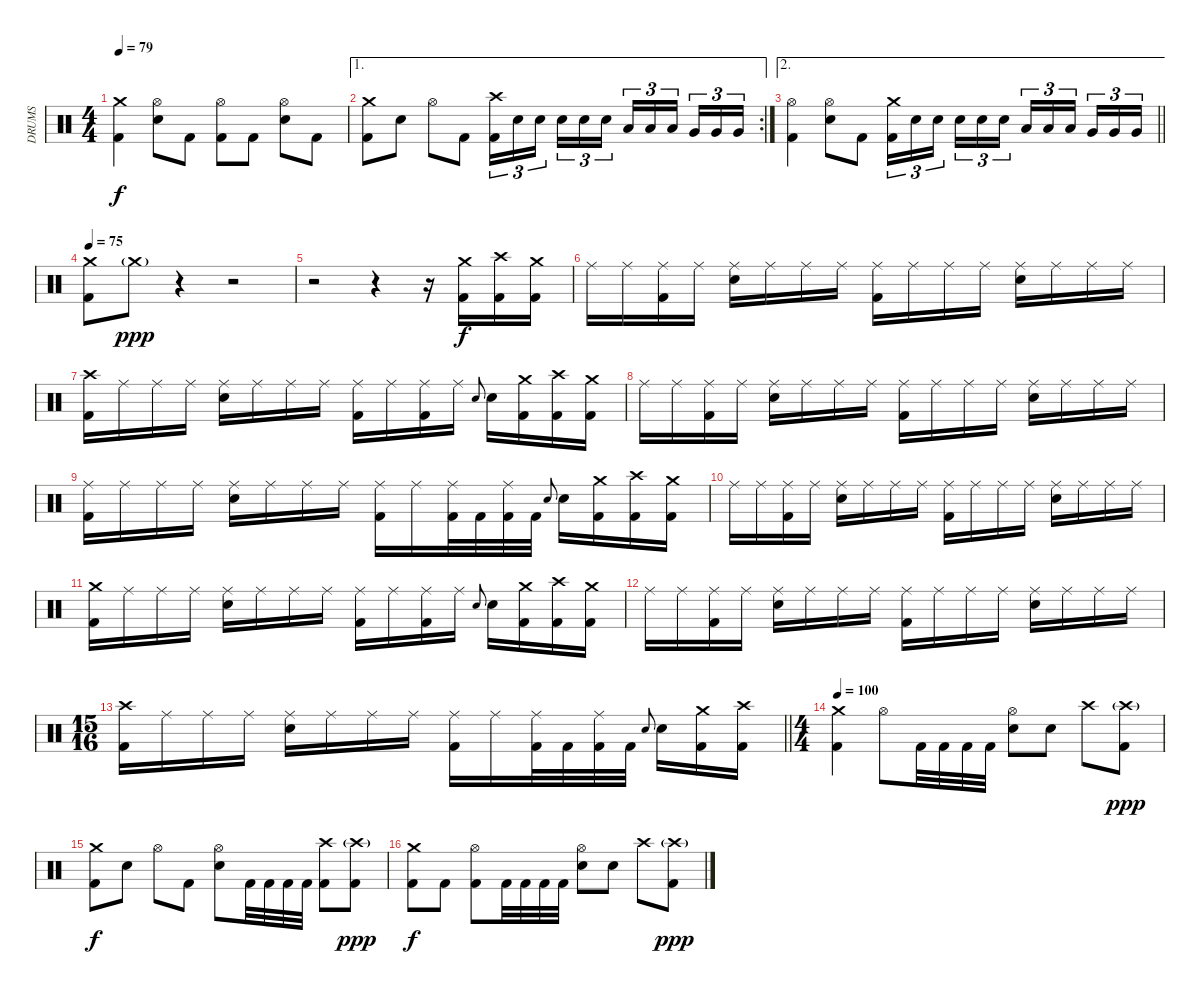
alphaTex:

\track ("DRUMS" "DRUMS") {instrument percussion}
\staff {score}
\articulation defaults
\ts (4 4)
\tempo 79
\clef neutral
\ks c
("Crash medium (hit)" "Kick (hit) 2").4{dy f} ("Hi-Hat (open)" "Snare (hit) 2").8 "Kick (hit) 2".8 ("Hi-Hat (open)" "Kick (hit) 2").8 "Kick (hit) 2".8 ("Hi-Hat (open)" "Snare (hit) 2").8 "Kick (hit) 2".8 |
\ae 1
\rc 2
("Crash medium (hit)" "Kick (hit) 2").8 "Snare (hit) 2".8 "Hi-Hat (open)".8 "Kick (hit) 2".8 ("Crash high (hit)" "Kick (hit) 2").16{tu (3 2)} "Snare (hit) 2".16{tu (3 2)} "Snare (hit) 2".16{tu (3 2) beam splitsecondary} "Snare (hit) 2".16{tu (3 2)} "Snare (hit) 2".16{tu (3 2)} "Snare (hit) 2".16{tu (3 2)} "Low Tom (hit)".16{tu (3 2)} "Low Tom (hit)".16{tu (3 2)} "Low Tom (hit)".16{tu (3 2) beam splitsecondary} "Very Low Tom (hit)".16{tu (3 2)} "Very Low Tom (hit)".16{tu (3 2)} "Very Low Tom (hit)".16{tu (3 2)} |
\ae 2
\barLineRight lightlight
("Hi-Hat (open)" "Kick (hit) 2").4 ("Hi-Hat (open)" "Snare (hit) 2").8 "Kick (hit) 2".8 ("Crash medium (hit)" "Kick (hit) 2").16{tu (3 2)} "Snare (hit) 2".16{tu (3 2)} "Snare (hit) 2".16{tu (3 2) beam splitsecondary} "Snare (hit) 2".16{tu (3 2)} "Snare (hit) 2".16{tu (3 2)} "Snare (hit) 2".16{tu (3 2)} "Low Tom (hit)".16{tu (3 2)} "Low Tom (hit)".16{tu (3 2)} "Low Tom (hit)".16{tu (3 2) beam splitsecondary} "Very Low Tom (hit)".16{tu (3 2)} "Very Low Tom (hit)".16{tu (3 2)} "Very Low Tom (hit)".16{tu (3 2)} |
\tempo 75
("Crash medium (hit)" "Kick (hit) 2").8 "Crash medium (hit)"{g}.8{dy ppp} r.4 r.2 |
r.2 r.4 r.16 ("Crash medium (hit)" "Kick (hit) 2").16{dy f} ("Crash high (hit)" "Kick (hit) 2").16 ("Crash medium (hit)" "Kick (hit) 2").16 |
"Ride (middle)".16 "Ride (middle)".16 ("Ride (middle)" "Kick (hit) 2").16 "Ride (middle)".16 ("Ride (middle)" "Snare (hit) 2").16 "Ride (middle)".16 "Ride (middle)".16 "Ride (middle)".16 ("Ride (middle)" "Kick (hit) 2").16 "Ride (middle)".16 "Ride (middle)".16 "Ride (middle)".16 ("Ride (middle)" "Snare (hit) 2").16 "Ride (middle)".16 "Ride (middle)".16 "Ride (middle)".16 |
("Crash high (hit)" "Kick (hit) 2").16 "Ride (middle)".16 "Ride (middle)".16 "Ride (middle)".16 ("Ride (middle)" "Snare (hit) 2").16 "Ride (middle)".16 "Ride (middle)".16 "Ride (middle)".16 ("Ride (middle)" "Kick (hit) 2").16 "Ride (middle)".16 ("Ride (middle)" "Kick (hit) 2").16 "Ride (middle)".16 "Snare (hit) 2".8{gr onbeat} "Snare (hit) 2".16 ("Crash medium (hit)" "Kick (hit) 2").16 ("Crash high (hit)" "Kick (hit) 2").16 ("Crash medium (hit)" "Kick (hit) 2").16 |
"Ride (middle)".16 "Ride (middle)".16 ("Ride (middle)" "Kick (hit) 2").16 "Ride (middle)".16 ("Ride (middle)" "Snare (hit) 2").16 "Ride (middle)".16 "Ride (middle)".16 "Ride (middle)".16 ("Ride (middle)" "Kick (hit) 2").16 "Ride (middle)".16 "Ride (middle)".16 "Ride (middle)".16 ("Ride (middle)" "Snare (hit) 2").16 "Ride (middle)".16 "Ride (middle)".16 "Ride (middle)".16 |
("Ride (middle)" "Kick (hit) 2").16 "Ride (middle)".16 "Ride (middle)".16 "Ride (middle)".16 ("Ride (middle)" "Snare (hit) 2").16 "Ride (middle)".16 "Ride (middle)".16 "Ride (middle)".16 ("Ride (middle)" "Kick (hit) 2").16 "Ride (middle)".16 ("Ride (middle)" "Kick (hit) 2").32 "Kick (hit) 2".32 ("Ride (middle)" "Kick (hit) 2").32 "Kick (hit) 2".32 "Snare (hit) 2".8{gr onbeat} "Snare (hit) 2".16 ("Crash medium (hit)" "Kick (hit) 2").16 ("Crash high (hit)" "Kick (hit) 2").16 ("Crash medium (hit)" "Kick (hit) 2").16 |
"Ride (middle)".16 "Ride (middle)".16 ("Ride (middle)" "Kick (hit) 2").16 "Ride (middle)".16 ("Ride (middle)" "Snare (hit) 2").16 "Ride (middle)".16 "Ride (middle)".16 "Ride (middle)".16 ("Ride (middle)" "Kick (hit) 2").16 "Ride (middle)".16 "Ride (middle)".16 "Ride (middle)".16 ("Ride (middle)" "Snare (hit) 2").16 "Ride (middle)".16 "Ride (middle)".16 "Ride (middle)".16 |
("Crash medium (hit)" "Kick (hit) 2").16 "Ride (middle)".16 "Ride (middle)".16 "Ride (middle)".16 ("Ride (middle)" "Snare (hit) 2").16 "Ride (middle)".16 "Ride (middle)".16 "Ride (middle)".16 ("Ride (middle)" "Kick (hit) 2").16 "Ride (middle)".16 ("Ride (middle)" "Kick (hit) 2").16 "Ride (middle)".16 "Snare (hit) 2".8{gr onbeat} "Snare (hit) 2".16 ("Crash medium (hit)" "Kick (hit) 2").16 ("Crash high (hit)" "Kick (hit) 2").16 ("Crash medium (hit)" "Kick (hit) 2").16 |
"Ride (middle)".16 "Ride (middle)".16 ("Ride (middle)" "Kick (hit) 2").16 "Ride (middle)".16 ("Ride (middle)" "Snare (hit) 2").16 "Ride (middle)".16 "Ride (middle)".16 "Ride (middle)".16 ("Ride (middle)" "Kick (hit) 2").16 "Ride (middle)".16 "Ride (middle)".16 "Ride (middle)".16 ("Ride (middle)" "Snare (hit) 2").16 "Ride (middle)".16 "Ride (middle)".16 "Ride (middle)".16 |
\ts (15 16)
\barLineRight lightlight
("Crash high (hit)" "Kick (hit) 2").16 "Ride (middle)".16 "Ride (middle)".16 "Ride (middle)".16 ("Ride (middle)" "Snare (hit) 2").16 "Ride (middle)".16 "Ride (middle)".16 "Ride (middle)".16 ("Ride (middle)" "Kick (hit) 2").16 "Ride (middle)".16 ("Ride (middle)" "Kick (hit) 2").32 "Kick (hit) 2".32 ("Ride (middle)" "Kick (hit) 2").32 "Kick (hit) 2".32 "Snare (hit) 2".8{gr onbeat} "Snare (hit) 2".16 ("Crash medium (hit)" "Kick (hit) 2").16 ("Crash high (hit)" "Kick (hit) 2").16 |
\ts (4 4)
\tempo 100
("Crash medium (hit)" "Kick (hit) 2").4 "Hi-Hat (open)".8 "Kick (hit) 2".32 "Kick (hit) 2".32 "Kick (hit) 2".32 "Kick (hit) 2".32 ("Hi-Hat (open)" "Snare (hit) 2").8 "Snare (hit) 2".8 "Crash high (hit)".8 ("Crash high (hit)"{g} "Kick (hit) 2").8{dy ppp} |
("Crash medium (hit)" "Kick (hit) 2").8{dy f} "Snare (hit) 2".8 "Hi-Hat (open)".8 "Kick (hit) 2".8 ("Hi-Hat (open)" "Snare (hit) 2").8 "Kick (hit) 2".32 "Kick (hit) 2".32 "Kick (hit) 2".32 "Kick (hit) 2".32 ("Crash high (hit)" "Kick (hit) 2").8 ("Crash high (hit)"{g} "Kick (hit) 2").8{dy ppp} |
("Crash medium (hit)" "Kick (hit) 2").8{dy f} "Kick (hit) 2".8 ("Hi-Hat (open)" "Kick (hit) 2").8 "Kick (hit) 2".32 "Kick (hit) 2".32 "Kick (hit) 2".32 "Kick (hit) 2".32 ("Hi-Hat (open)" "Snare (hit) 2").8 "Snare (hit) 2".8 "Crash high (hit)".8 ("Crash high (hit)"{g} "Kick (hit) 2").8{dy ppp}
